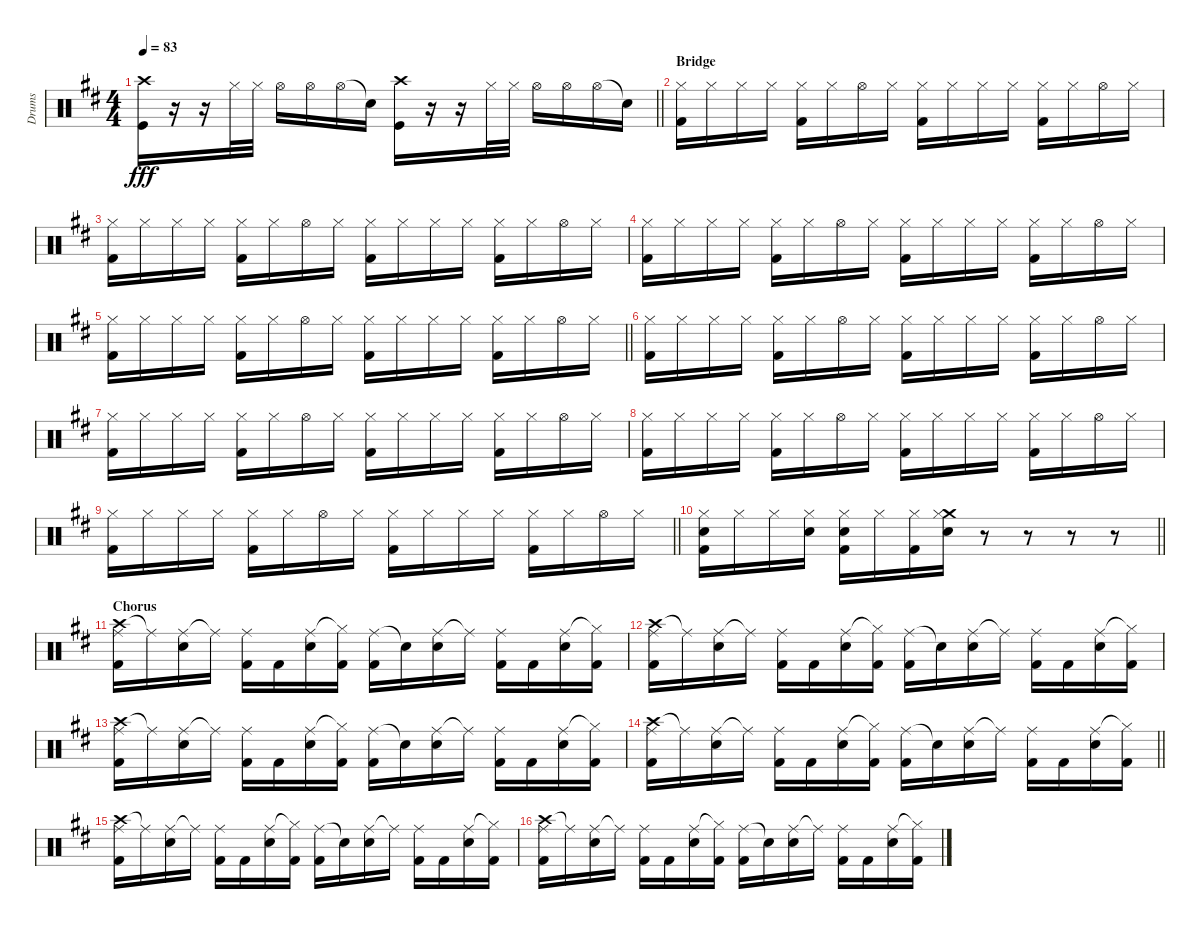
\track ("Drums" "Drums") {instrument percussion}
\staff {score}
\articulation defaults
\ts (4 4)
\tempo 83
\clef neutral
\barLineRight lightlight
\ks d
("Crash high (hit)" "Kick (hit)").16{dy fff} r.16 r.16 "Hi-Hat (closed)".32 "Hi-Hat (closed)".32 "Hi-Hat (open)".16 "Hi-Hat (open)".16 "Hi-Hat (open)".16 "Snare (hit)"{t}.16 ("Crash high (hit)" "Kick (hit)").16 r.16 r.16 "Hi-Hat (closed)".32 "Hi-Hat (closed)".32 "Hi-Hat (open)".16 "Hi-Hat (open)".16 "Hi-Hat (open)".16 "Snare (hit)"{t}.16 |
\section ("" "Bridge")
("Hi-Hat (closed)" "Kick (hit) 2").16 "Hi-Hat (closed)".16 "Hi-Hat (closed)".16 "Hi-Hat (closed)".16 ("Hi-Hat (closed)" "Kick (hit) 2").16 "Hi-Hat (closed)".16 "Hi-Hat (open)".16 "Hi-Hat (closed)".16 ("Hi-Hat (closed)" "Kick (hit) 2").16 "Hi-Hat (closed)".16 "Hi-Hat (closed)".16 "Hi-Hat (closed)".16 ("Hi-Hat (closed)" "Kick (hit) 2").16 "Hi-Hat (closed)".16 "Hi-Hat (open)".16 "Hi-Hat (closed)".16 |
("Hi-Hat (closed)" "Kick (hit) 2").16 "Hi-Hat (closed)".16 "Hi-Hat (closed)".16 "Hi-Hat (closed)".16 ("Hi-Hat (closed)" "Kick (hit) 2").16 "Hi-Hat (closed)".16 "Hi-Hat (open)".16 "Hi-Hat (closed)".16 ("Hi-Hat (closed)" "Kick (hit) 2").16 "Hi-Hat (closed)".16 "Hi-Hat (closed)".16 "Hi-Hat (closed)".16 ("Hi-Hat (closed)" "Kick (hit) 2").16 "Hi-Hat (closed)".16 "Hi-Hat (open)".16 "Hi-Hat (closed)".16 |
("Hi-Hat (closed)" "Kick (hit) 2").16 "Hi-Hat (closed)".16 "Hi-Hat (closed)".16 "Hi-Hat (closed)".16 ("Hi-Hat (closed)" "Kick (hit) 2").16 "Hi-Hat (closed)".16 "Hi-Hat (open)".16 "Hi-Hat (closed)".16 ("Hi-Hat (closed)" "Kick (hit) 2").16 "Hi-Hat (closed)".16 "Hi-Hat (closed)".16 "Hi-Hat (closed)".16 ("Hi-Hat (closed)" "Kick (hit) 2").16 "Hi-Hat (closed)".16 "Hi-Hat (open)".16 "Hi-Hat (closed)".16 |
\barLineRight lightlight
("Hi-Hat (closed)" "Kick (hit) 2").16 "Hi-Hat (closed)".16 "Hi-Hat (closed)".16 "Hi-Hat (closed)".16 ("Hi-Hat (closed)" "Kick (hit) 2").16 "Hi-Hat (closed)".16 "Hi-Hat (open)".16 "Hi-Hat (closed)".16 ("Hi-Hat (closed)" "Kick (hit) 2").16 "Hi-Hat (closed)".16 "Hi-Hat (closed)".16 "Hi-Hat (closed)".16 ("Hi-Hat (closed)" "Kick (hit) 2").16 "Hi-Hat (closed)".16 "Hi-Hat (open)".16 "Hi-Hat (closed)".16 |
("Hi-Hat (closed)" "Kick (hit) 2").16 "Hi-Hat (closed)".16 "Hi-Hat (closed)".16 "Hi-Hat (closed)".16 ("Hi-Hat (closed)" "Kick (hit) 2").16 "Hi-Hat (closed)".16 "Hi-Hat (open)".16 "Hi-Hat (closed)".16 ("Hi-Hat (closed)" "Kick (hit) 2").16 "Hi-Hat (closed)".16 "Hi-Hat (closed)".16 "Hi-Hat (closed)".16 ("Hi-Hat (closed)" "Kick (hit) 2").16 "Hi-Hat (closed)".16 "Hi-Hat (open)".16 "Hi-Hat (closed)".16 |
("Hi-Hat (closed)" "Kick (hit) 2").16 "Hi-Hat (closed)".16 "Hi-Hat (closed)".16 "Hi-Hat (closed)".16 ("Hi-Hat (closed)" "Kick (hit) 2").16 "Hi-Hat (closed)".16 "Hi-Hat (open)".16 "Hi-Hat (closed)".16 ("Hi-Hat (closed)" "Kick (hit) 2").16 "Hi-Hat (closed)".16 "Hi-Hat (closed)".16 "Hi-Hat (closed)".16 ("Hi-Hat (closed)" "Kick (hit) 2").16 "Hi-Hat (closed)".16 "Hi-Hat (open)".16 "Hi-Hat (closed)".16 |
("Hi-Hat (closed)" "Kick (hit) 2").16 "Hi-Hat (closed)".16 "Hi-Hat (closed)".16 "Hi-Hat (closed)".16 ("Hi-Hat (closed)" "Kick (hit) 2").16 "Hi-Hat (closed)".16 "Hi-Hat (open)".16 "Hi-Hat (closed)".16 ("Hi-Hat (closed)" "Kick (hit) 2").16 "Hi-Hat (closed)".16 "Hi-Hat (closed)".16 "Hi-Hat (closed)".16 ("Hi-Hat (closed)" "Kick (hit) 2").16 "Hi-Hat (closed)".16 "Hi-Hat (open)".16 "Hi-Hat (closed)".16 |
\barLineRight lightlight
("Hi-Hat (closed)" "Kick (hit) 2").16 "Hi-Hat (closed)".16 "Hi-Hat (closed)".16 "Hi-Hat (closed)".16 ("Hi-Hat (closed)" "Kick (hit) 2").16 "Hi-Hat (closed)".16 "Hi-Hat (open)".16 "Hi-Hat (closed)".16 ("Hi-Hat (closed)" "Kick (hit) 2").16 "Hi-Hat (closed)".16 "Hi-Hat (closed)".16 "Hi-Hat (closed)".16 ("Hi-Hat (closed)" "Kick (hit) 2").16 "Hi-Hat (closed)".16 "Hi-Hat (open)".16 "Hi-Hat (closed)".16 |
\barLineRight lightlight
("Hi-Hat (closed)" "Electric Snare (hit)" "Kick (hit) 2").16 "Hi-Hat (closed)".16 "Hi-Hat (closed)".16 ("Hi-Hat (closed)" "Electric Snare (hit)").16 ("Hi-Hat (closed)" "Electric Snare (hit)" "Kick (hit) 2").16 "Hi-Hat (closed)".16 ("Hi-Hat (closed)" "Kick (hit) 2").16 ("Crash medium (hit)" "Hi-Hat (closed)" "Electric Snare (hit)").16 r.8 r.8 r.8 r.8 |
\section ("" "Chorus")
("Crash high (hit)" "Ride (middle)" "Kick (hit) 2").16 "Ride (middle)"{t}.16 ("Ride (middle)" "Electric Snare (hit)").16 "Ride (middle)"{t}.16 ("Ride (middle)" "Kick (hit) 2").16 "Kick (hit) 2".16 ("Ride (middle)" "Electric Snare (hit)").16 ("Hi-Hat (closed)"{t} "Kick (hit) 2").16 ("Ride (middle)" "Kick (hit) 2").16 "Snare (hit)"{t}.16 ("Ride (middle)" "Electric Snare (hit)").16 "Ride (middle)"{t}.16 ("Ride (middle)" "Kick (hit) 2").16 "Kick (hit) 2".16 ("Ride (middle)" "Electric Snare (hit)").16 ("Hi-Hat (closed)"{t} "Kick (hit) 2").16 |
("Crash high (hit)" "Ride (middle)" "Kick (hit) 2").16 "Ride (middle)"{t}.16 ("Ride (middle)" "Electric Snare (hit)").16 "Ride (middle)"{t}.16 ("Ride (middle)" "Kick (hit) 2").16 "Kick (hit) 2".16 ("Ride (middle)" "Electric Snare (hit)").16 ("Hi-Hat (closed)"{t} "Kick (hit) 2").16 ("Ride (middle)" "Kick (hit) 2").16 "Snare (hit)"{t}.16 ("Ride (middle)" "Electric Snare (hit)").16 "Ride (middle)"{t}.16 ("Ride (middle)" "Kick (hit) 2").16 "Kick (hit) 2".16 ("Ride (middle)" "Electric Snare (hit)").16 ("Hi-Hat (closed)"{t} "Kick (hit) 2").16 |
("Crash high (hit)" "Ride (middle)" "Kick (hit) 2").16 "Ride (middle)"{t}.16 ("Ride (middle)" "Electric Snare (hit)").16 "Ride (middle)"{t}.16 ("Ride (middle)" "Kick (hit) 2").16 "Kick (hit) 2".16 ("Ride (middle)" "Electric Snare (hit)").16 ("Hi-Hat (closed)"{t} "Kick (hit) 2").16 ("Ride (middle)" "Kick (hit) 2").16 "Snare (hit)"{t}.16 ("Ride (middle)" "Electric Snare (hit)").16 "Ride (middle)"{t}.16 ("Ride (middle)" "Kick (hit) 2").16 "Kick (hit) 2".16 ("Ride (middle)" "Electric Snare (hit)").16 ("Hi-Hat (closed)"{t} "Kick (hit) 2").16 |
\barLineRight lightlight
("Crash high (hit)" "Ride (middle)" "Kick (hit) 2").16 "Ride (middle)"{t}.16 ("Ride (middle)" "Electric Snare (hit)").16 "Ride (middle)"{t}.16 ("Ride (middle)" "Kick (hit) 2").16 "Kick (hit) 2".16 ("Ride (middle)" "Electric Snare (hit)").16 ("Hi-Hat (closed)"{t} "Kick (hit) 2").16 ("Ride (middle)" "Kick (hit) 2").16 "Snare (hit)"{t}.16 ("Ride (middle)" "Electric Snare (hit)").16 "Ride (middle)"{t}.16 ("Ride (middle)" "Kick (hit) 2").16 "Kick (hit) 2".16 ("Ride (middle)" "Electric Snare (hit)").16 ("Hi-Hat (closed)"{t} "Kick (hit) 2").16 |
("Crash high (hit)" "Ride (middle)" "Kick (hit) 2").16 "Ride (middle)"{t}.16 ("Ride (middle)" "Electric Snare (hit)").16 "Ride (middle)"{t}.16 ("Ride (middle)" "Kick (hit) 2").16 "Kick (hit) 2".16 ("Ride (middle)" "Electric Snare (hit)").16 ("Hi-Hat (closed)"{t} "Kick (hit) 2").16 ("Ride (middle)" "Kick (hit) 2").16 "Snare (hit)"{t}.16 ("Ride (middle)" "Electric Snare (hit)").16 "Ride (middle)"{t}.16 ("Ride (middle)" "Kick (hit) 2").16 "Kick (hit) 2".16 ("Ride (middle)" "Electric Snare (hit)").16 ("Hi-Hat (closed)"{t} "Kick (hit) 2").16 |
("Crash high (hit)" "Ride (middle)" "Kick (hit) 2").16 "Ride (middle)"{t}.16 ("Ride (middle)" "Electric Snare (hit)").16 "Ride (middle)"{t}.16 ("Ride (middle)" "Kick (hit) 2").16 "Kick (hit) 2".16 ("Ride (middle)" "Electric Snare (hit)").16 ("Hi-Hat (closed)"{t} "Kick (hit) 2").16 ("Ride (middle)" "Kick (hit) 2").16 "Snare (hit)"{t}.16 ("Ride (middle)" "Electric Snare (hit)").16 "Ride (middle)"{t}.16 ("Ride (middle)" "Kick (hit) 2").16 "Kick (hit) 2".16 ("Ride (middle)" "Electric Snare (hit)").16 ("Hi-Hat (closed)"{t} "Kick (hit) 2").16
